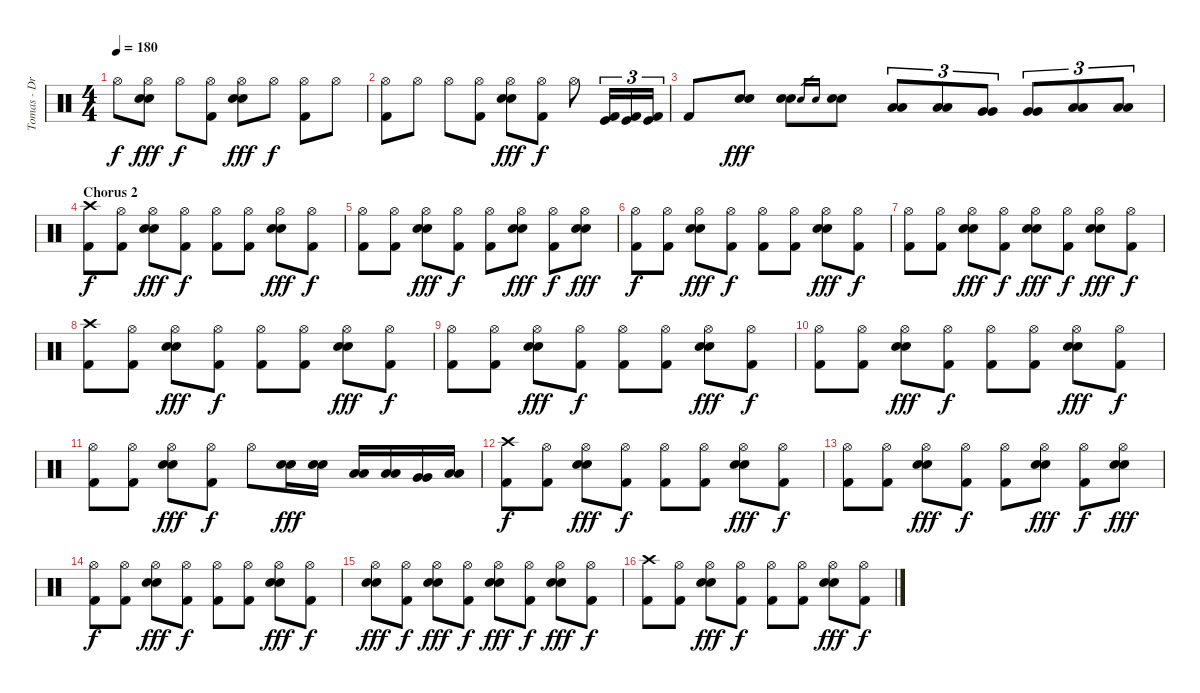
\track ("Tomas - Drums" "Tomas - Dr") {instrument percussion}
\staff {score}
\articulation defaults
\ts (4 4)
\tempo 180
\clef neutral
\ks c "Hi-Hat (open)".8{dy f}
("Hi-Hat (open)" "Electric Snare (hit)" "Electric Snare (hit)").8{dy fff} "Hi-Hat (open)".8{dy f} ("Hi-Hat (open)" "Kick (hit) 2").8 ("Hi-Hat (open)" "Electric Snare (hit)" "Electric Snare (hit)").8{dy fff} "Hi-Hat (open)".8{dy f} ("Hi-Hat (open)" "Kick (hit) 2").8 "Hi-Hat (open)".8 |
("Hi-Hat (open)" "Kick (hit) 2").8 "Hi-Hat (open)".8 "Hi-Hat (open)".8 ("Hi-Hat (open)" "Kick (hit) 2").8 ("Hi-Hat (open)" "Electric Snare (hit)" "Electric Snare (hit)").8{dy fff} ("Hi-Hat (open)" "Kick (hit) 2").8{dy f} "Hi-Hat (open)".8 ("Kick (hit)" "Kick (hit) 2").16{tu (3 2)} ("Kick (hit)" "Kick (hit) 2").16{tu (3 2)} ("Kick (hit)" "Kick (hit) 2").16{tu (3 2)} |
"Kick (hit) 2".8 ("Electric Snare (hit)" "Electric Snare (hit)").8{dy fff} ("Electric Snare (hit)" "Electric Snare (hit)").8 "Electric Snare (hit)".16{gr} "Electric Snare (hit)".16{gr} ("Electric Snare (hit)" "Electric Snare (hit)").8 ("Low Floor Tom (hit)" "Low Floor Tom (hit)").8{tu (3 2)} ("Low Floor Tom (hit)" "Low Floor Tom (hit)").8{tu (3 2)} ("Very Low Tom (hit)" "Very Low Tom (hit)").8{tu (3 2)} ("Very Low Tom (hit)" "Very Low Tom (hit)").8{tu (3 2)} ("Low Tom (hit)" "Low Tom (hit)").8{tu (3 2)} ("Low Tom (hit)" "Low Tom (hit)").8{tu (3 2)} |
\section ("" "Chorus 2")
("Crash high (hit)" "Kick (hit) 2").8{dy f} ("Hi-Hat (open)" "Kick (hit) 2").8 ("Hi-Hat (open)" "Electric Snare (hit)" "Electric Snare (hit)").8{dy fff} ("Hi-Hat (open)" "Kick (hit) 2").8{dy f} ("Hi-Hat (open)" "Kick (hit) 2").8 ("Hi-Hat (open)" "Kick (hit) 2").8 ("Hi-Hat (open)" "Electric Snare (hit)" "Electric Snare (hit)").8{dy fff} ("Hi-Hat (open)" "Kick (hit) 2").8{dy f} |
("Hi-Hat (open)" "Kick (hit) 2").8 ("Hi-Hat (open)" "Kick (hit) 2").8 ("Hi-Hat (open)" "Electric Snare (hit)" "Electric Snare (hit)").8{dy fff} ("Hi-Hat (open)" "Kick (hit) 2").8{dy f} ("Hi-Hat (open)" "Kick (hit) 2").8 ("Hi-Hat (open)" "Electric Snare (hit)" "Electric Snare (hit)").8{dy fff} ("Hi-Hat (open)" "Kick (hit) 2").8{dy f} ("Hi-Hat (open)" "Electric Snare (hit)" "Electric Snare (hit)").8{dy fff} |
("Hi-Hat (open)" "Kick (hit) 2").8{dy f} ("Hi-Hat (open)" "Kick (hit) 2").8 ("Hi-Hat (open)" "Electric Snare (hit)" "Electric Snare (hit)").8{dy fff} ("Hi-Hat (open)" "Kick (hit) 2").8{dy f} ("Hi-Hat (open)" "Kick (hit) 2").8 ("Hi-Hat (open)" "Kick (hit) 2").8 ("Hi-Hat (open)" "Electric Snare (hit)" "Electric Snare (hit)").8{dy fff} ("Hi-Hat (open)" "Kick (hit) 2").8{dy f} |
("Hi-Hat (open)" "Kick (hit) 2").8 ("Hi-Hat (open)" "Kick (hit) 2").8 ("Hi-Hat (open)" "Electric Snare (hit)" "Electric Snare (hit)").8{dy fff} ("Hi-Hat (open)" "Kick (hit) 2").8{dy f} ("Hi-Hat (open)" "Electric Snare (hit)" "Electric Snare (hit)").8{dy fff} ("Hi-Hat (open)" "Kick (hit) 2").8{dy f} ("Hi-Hat (open)" "Electric Snare (hit)" "Electric Snare (hit)").8{dy fff} ("Hi-Hat (open)" "Kick (hit) 2").8{dy f} |
("Crash high (hit)" "Kick (hit) 2").8 ("Hi-Hat (open)" "Kick (hit) 2").8 ("Hi-Hat (open)" "Electric Snare (hit)" "Electric Snare (hit)").8{dy fff} ("Hi-Hat (open)" "Kick (hit) 2").8{dy f} ("Hi-Hat (open)" "Kick (hit) 2").8 ("Hi-Hat (open)" "Kick (hit) 2").8 ("Hi-Hat (open)" "Electric Snare (hit)" "Electric Snare (hit)").8{dy fff} ("Hi-Hat (open)" "Kick (hit) 2").8{dy f} |
("Hi-Hat (open)" "Kick (hit) 2").8 ("Hi-Hat (open)" "Kick (hit) 2").8 ("Hi-Hat (open)" "Electric Snare (hit)" "Electric Snare (hit)").8{dy fff} ("Hi-Hat (open)" "Kick (hit) 2").8{dy f} ("Hi-Hat (open)" "Kick (hit) 2").8 ("Hi-Hat (open)" "Kick (hit) 2").8 ("Hi-Hat (open)" "Electric Snare (hit)" "Electric Snare (hit)").8{dy fff} ("Hi-Hat (open)" "Kick (hit) 2").8{dy f} |
("Hi-Hat (open)" "Kick (hit) 2").8 ("Hi-Hat (open)" "Kick (hit) 2").8 ("Hi-Hat (open)" "Electric Snare (hit)" "Electric Snare (hit)").8{dy fff} ("Hi-Hat (open)" "Kick (hit) 2").8{dy f} ("Hi-Hat (open)" "Kick (hit) 2").8 ("Hi-Hat (open)" "Kick (hit) 2").8 ("Hi-Hat (open)" "Electric Snare (hit)" "Electric Snare (hit)").8{dy fff} ("Hi-Hat (open)" "Kick (hit) 2").8{dy f} |
("Hi-Hat (open)" "Kick (hit) 2").8 ("Hi-Hat (open)" "Kick (hit) 2").8 ("Hi-Hat (open)" "Electric Snare (hit)" "Electric Snare (hit)").8{dy fff} ("Hi-Hat (open)" "Kick (hit) 2").8{dy f} "Hi-Hat (open)".8 ("Electric Snare (hit)" "Electric Snare (hit)").16{dy fff} ("Electric Snare (hit)" "Electric Snare (hit)").16 ("Low Tom (hit)" "Low Tom (hit)").16 ("Low Tom (hit)" "Low Tom (hit)").16 ("Very Low Tom (hit)" "Very Low Tom (hit)").16 ("Low Floor Tom (hit)" "Low Floor Tom (hit)").16 |
("Crash high (hit)" "Kick (hit) 2").8{dy f} ("Hi-Hat (open)" "Kick (hit) 2").8 ("Hi-Hat (open)" "Electric Snare (hit)" "Electric Snare (hit)").8{dy fff} ("Hi-Hat (open)" "Kick (hit) 2").8{dy f} ("Hi-Hat (open)" "Kick (hit) 2").8 ("Hi-Hat (open)" "Kick (hit) 2").8 ("Hi-Hat (open)" "Electric Snare (hit)" "Electric Snare (hit)").8{dy fff} ("Hi-Hat (open)" "Kick (hit) 2").8{dy f} |
("Hi-Hat (open)" "Kick (hit) 2").8 ("Hi-Hat (open)" "Kick (hit) 2").8 ("Hi-Hat (open)" "Electric Snare (hit)" "Electric Snare (hit)").8{dy fff} ("Hi-Hat (open)" "Kick (hit) 2").8{dy f} ("Hi-Hat (open)" "Kick (hit) 2").8 ("Hi-Hat (open)" "Electric Snare (hit)" "Electric Snare (hit)").8{dy fff} ("Hi-Hat (open)" "Kick (hit) 2").8{dy f} ("Hi-Hat (open)" "Electric Snare (hit)" "Electric Snare (hit)").8{dy fff} |
("Hi-Hat (open)" "Kick (hit) 2").8{dy f} ("Hi-Hat (open)" "Kick (hit) 2").8 ("Hi-Hat (open)" "Electric Snare (hit)" "Electric Snare (hit)").8{dy fff} ("Hi-Hat (open)" "Kick (hit) 2").8{dy f} ("Hi-Hat (open)" "Kick (hit) 2").8 ("Hi-Hat (open)" "Kick (hit) 2").8 ("Hi-Hat (open)" "Electric Snare (hit)" "Electric Snare (hit)").8{dy fff} ("Hi-Hat (open)" "Kick (hit) 2").8{dy f} |
("Hi-Hat (open)" "Electric Snare (hit)" "Electric Snare (hit)").8{dy fff} ("Hi-Hat (open)" "Kick (hit) 2").8{dy f} ("Hi-Hat (open)" "Electric Snare (hit)" "Electric Snare (hit)").8{dy fff} ("Hi-Hat (open)" "Kick (hit) 2").8{dy f} ("Hi-Hat (open)" "Electric Snare (hit)" "Electric Snare (hit)").8{dy fff} ("Hi-Hat (open)" "Kick (hit) 2").8{dy f} ("Hi-Hat (open)" "Electric Snare (hit)" "Electric Snare (hit)").8{dy fff} ("Hi-Hat (open)" "Kick (hit) 2").8{dy f} |
("Crash high (hit)" "Kick (hit) 2").8 ("Hi-Hat (open)" "Kick (hit) 2").8 ("Hi-Hat (open)" "Electric Snare (hit)" "Electric Snare (hit)").8{dy fff} ("Hi-Hat (open)" "Kick (hit) 2").8{dy f} ("Hi-Hat (open)" "Kick (hit) 2").8 ("Hi-Hat (open)" "Kick (hit) 2").8 ("Hi-Hat (open)" "Electric Snare (hit)" "Electric Snare (hit)").8{dy fff} ("Hi-Hat (open)" "Kick (hit) 2").8{dy f}
